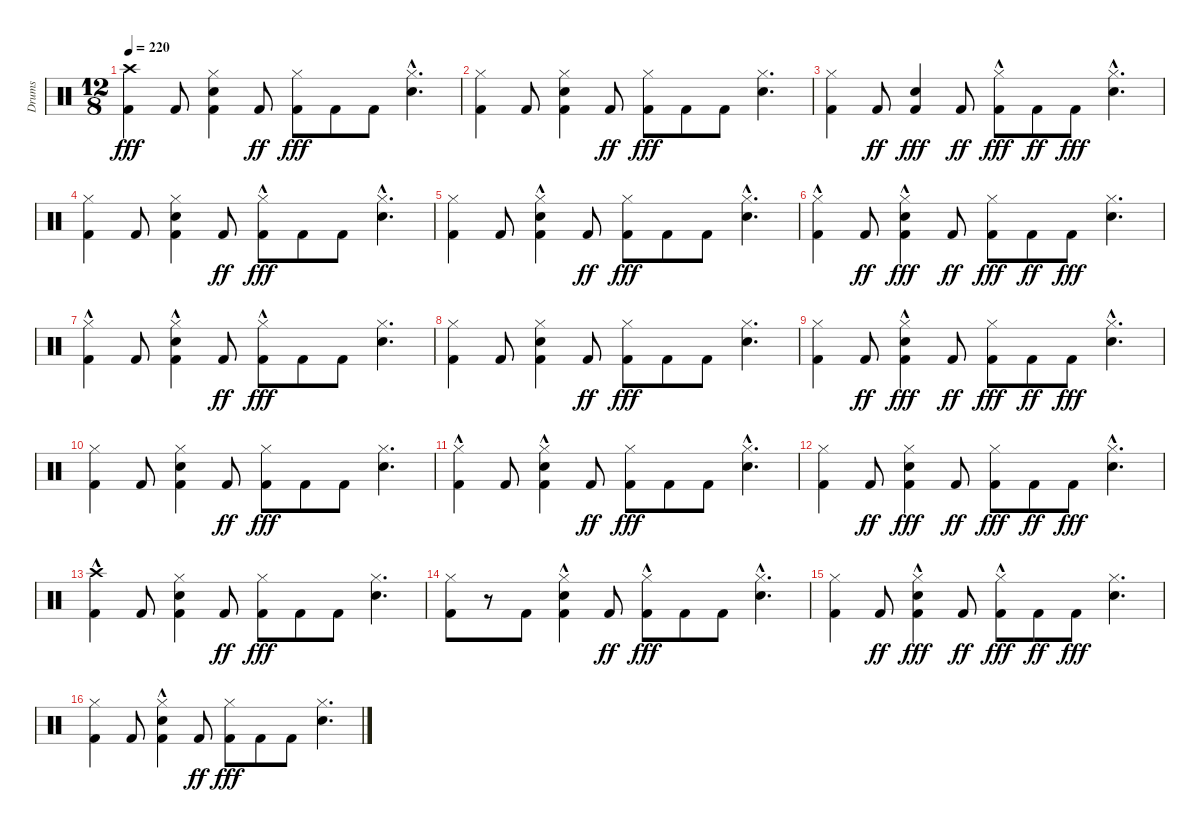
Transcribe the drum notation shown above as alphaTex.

\track ("Drums" "Drums") {instrument percussion}
\staff {score}
\articulation defaults
\ts (12 8)
\tempo 220
\clef neutral
\ks c
("Kick (hit) 2" "Crash high (hit)").4{dy fff} "Kick (hit) 2".8 ("Kick (hit) 2" "Snare (hit) 2" "Hi-Hat (closed)").4 "Kick (hit) 2".8{dy ff} ("Kick (hit) 2" "Hi-Hat (closed)").8{dy fff} "Kick (hit) 2".8 "Kick (hit) 2".8 ("Snare (hit) 2" "Hi-Hat (closed)"{hac}).4{d} |
("Kick (hit) 2" "Hi-Hat (closed)").4 "Kick (hit) 2".8 ("Kick (hit) 2" "Snare (hit) 2" "Hi-Hat (closed)").4 "Kick (hit) 2".8{dy ff} ("Kick (hit) 2" "Hi-Hat (closed)").8{dy fff} "Kick (hit) 2".8 "Kick (hit) 2".8 ("Snare (hit) 2" "Hi-Hat (closed)").4{d} |
("Kick (hit) 2" "Hi-Hat (closed)").4 "Kick (hit) 2".8{dy ff} ("Kick (hit) 2" "Snare (hit) 2").4{dy fff} "Kick (hit) 2".8{dy ff} ("Kick (hit) 2" "Hi-Hat (closed)"{hac}).8{dy fff} "Kick (hit) 2".8{dy ff} "Kick (hit) 2".8{dy fff} ("Snare (hit) 2" "Hi-Hat (closed)"{hac}).4{d} |
("Kick (hit) 2" "Hi-Hat (closed)").4 "Kick (hit) 2".8 ("Kick (hit) 2" "Snare (hit) 2" "Hi-Hat (closed)").4 "Kick (hit) 2".8{dy ff} ("Kick (hit) 2" "Hi-Hat (closed)"{hac}).8{dy fff} "Kick (hit) 2".8 "Kick (hit) 2".8 ("Snare (hit) 2" "Hi-Hat (closed)"{hac}).4{d} |
("Kick (hit) 2" "Hi-Hat (closed)").4 "Kick (hit) 2".8 ("Kick (hit) 2" "Snare (hit) 2" "Hi-Hat (closed)"{hac}).4 "Kick (hit) 2".8{dy ff} ("Kick (hit) 2" "Hi-Hat (closed)").8{dy fff} "Kick (hit) 2".8 "Kick (hit) 2".8 ("Snare (hit) 2" "Hi-Hat (closed)"{hac}).4{d} |
("Kick (hit) 2" "Hi-Hat (closed)"{hac}).4 "Kick (hit) 2".8{dy ff} ("Kick (hit) 2" "Snare (hit) 2" "Hi-Hat (closed)"{hac}).4{dy fff} "Kick (hit) 2".8{dy ff} ("Kick (hit) 2" "Hi-Hat (closed)").8{dy fff} "Kick (hit) 2".8{dy ff} "Kick (hit) 2".8{dy fff} ("Snare (hit) 2" "Hi-Hat (closed)").4{d} |
("Kick (hit) 2" "Hi-Hat (closed)"{hac}).4 "Kick (hit) 2".8 ("Kick (hit) 2" "Snare (hit) 2" "Hi-Hat (closed)"{hac}).4 "Kick (hit) 2".8{dy ff} ("Kick (hit) 2" "Hi-Hat (closed)"{hac}).8{dy fff} "Kick (hit) 2".8 "Kick (hit) 2".8 ("Snare (hit) 2" "Hi-Hat (closed)").4{d} |
("Kick (hit) 2" "Hi-Hat (closed)").4 "Kick (hit) 2".8 ("Kick (hit) 2" "Snare (hit) 2" "Hi-Hat (closed)").4 "Kick (hit) 2".8{dy ff} ("Kick (hit) 2" "Hi-Hat (closed)").8{dy fff} "Kick (hit) 2".8 "Kick (hit) 2".8 ("Snare (hit) 2" "Hi-Hat (closed)").4{d} |
("Kick (hit) 2" "Hi-Hat (closed)").4 "Kick (hit) 2".8{dy ff} ("Kick (hit) 2" "Snare (hit) 2" "Hi-Hat (closed)"{hac}).4{dy fff} "Kick (hit) 2".8{dy ff} ("Kick (hit) 2" "Hi-Hat (closed)").8{dy fff} "Kick (hit) 2".8{dy ff} "Kick (hit) 2".8{dy fff} ("Snare (hit) 2" "Hi-Hat (closed)"{hac}).4{d} |
("Kick (hit) 2" "Hi-Hat (closed)").4 "Kick (hit) 2".8 ("Kick (hit) 2" "Snare (hit) 2" "Hi-Hat (closed)").4 "Kick (hit) 2".8{dy ff} ("Kick (hit) 2" "Hi-Hat (closed)").8{dy fff} "Kick (hit) 2".8 "Kick (hit) 2".8 ("Snare (hit) 2" "Hi-Hat (closed)").4{d} |
("Kick (hit) 2" "Hi-Hat (closed)"{hac}).4 "Kick (hit) 2".8 ("Kick (hit) 2" "Snare (hit) 2" "Hi-Hat (closed)"{hac}).4 "Kick (hit) 2".8{dy ff} ("Kick (hit) 2" "Hi-Hat (closed)").8{dy fff} "Kick (hit) 2".8 "Kick (hit) 2".8 ("Snare (hit) 2" "Hi-Hat (closed)"{hac}).4{d} |
("Kick (hit) 2" "Hi-Hat (closed)").4 "Kick (hit) 2".8{dy ff} ("Kick (hit) 2" "Snare (hit) 2" "Hi-Hat (closed)").4{dy fff} "Kick (hit) 2".8{dy ff} ("Kick (hit) 2" "Hi-Hat (closed)").8{dy fff} "Kick (hit) 2".8{dy ff} "Kick (hit) 2".8{dy fff} ("Snare (hit) 2" "Hi-Hat (closed)"{hac}).4{d} |
("Kick (hit) 2" "Crash high (hit)"{hac}).4 "Kick (hit) 2".8 ("Kick (hit) 2" "Snare (hit) 2" "Hi-Hat (closed)").4 "Kick (hit) 2".8{dy ff} ("Kick (hit) 2" "Hi-Hat (closed)").8{dy fff} "Kick (hit) 2".8 "Kick (hit) 2".8 ("Snare (hit) 2" "Hi-Hat (closed)").4{d} |
("Kick (hit) 2" "Hi-Hat (closed)").8 r.8 "Kick (hit) 2".8 ("Kick (hit) 2" "Snare (hit) 2" "Hi-Hat (closed)"{hac}).4 "Kick (hit) 2".8{dy ff} ("Kick (hit) 2" "Hi-Hat (closed)"{hac}).8{dy fff} "Kick (hit) 2".8 "Kick (hit) 2".8 ("Snare (hit) 2" "Hi-Hat (closed)"{hac}).4{d} |
("Kick (hit) 2" "Hi-Hat (closed)").4 "Kick (hit) 2".8{dy ff} ("Kick (hit) 2" "Snare (hit) 2" "Hi-Hat (closed)"{hac}).4{dy fff} "Kick (hit) 2".8{dy ff} ("Kick (hit) 2" "Hi-Hat (closed)"{hac}).8{dy fff} "Kick (hit) 2".8{dy ff} "Kick (hit) 2".8{dy fff} ("Snare (hit) 2" "Hi-Hat (closed)").4{d} |
("Kick (hit) 2" "Hi-Hat (closed)").4 "Kick (hit) 2".8 ("Kick (hit) 2" "Snare (hit) 2" "Hi-Hat (closed)"{hac}).4 "Kick (hit) 2".8{dy ff} ("Kick (hit) 2" "Hi-Hat (closed)").8{dy fff} "Kick (hit) 2".8 "Kick (hit) 2".8 ("Snare (hit) 2" "Hi-Hat (closed)").4{d}
